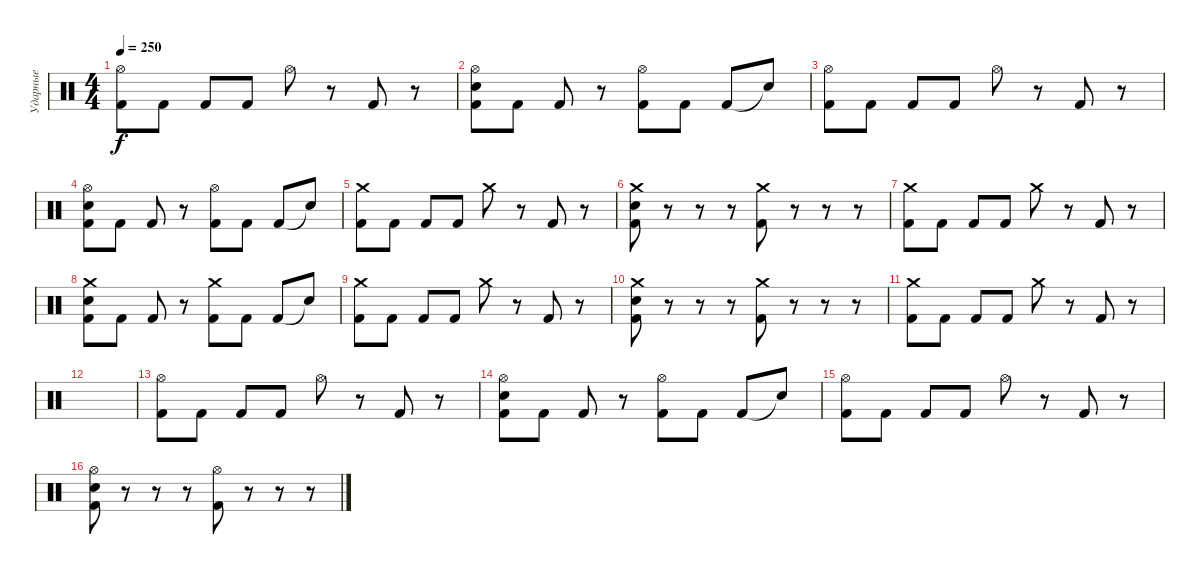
\track ("Ударные" "Ударные") {instrument percussion}
\staff {score}
\articulation defaults
\ts (4 4)
\tempo 250
\clef neutral
\ks c
("Hi-Hat (open)" "Kick (hit) 2").8{dy f} "Kick (hit) 2".8 "Kick (hit) 2".8 "Kick (hit) 2".8 "Hi-Hat (open)".8 r.8 "Kick (hit) 2".8 r.8 |
("Hi-Hat (open)" "Kick (hit) 2" "Electric Snare (hit)").8 "Kick (hit) 2".8 "Kick (hit) 2".8 r.8 ("Hi-Hat (open)" "Kick (hit) 2").8 "Kick (hit) 2".8 "Kick (hit) 2".8 "Snare (hit)"{t}.8 |
("Hi-Hat (open)" "Kick (hit) 2").8 "Kick (hit) 2".8 "Kick (hit) 2".8 "Kick (hit) 2".8 "Hi-Hat (open)".8 r.8 "Kick (hit) 2".8 r.8 |
("Hi-Hat (open)" "Kick (hit) 2" "Electric Snare (hit)").8 "Kick (hit) 2".8 "Kick (hit) 2".8 r.8 ("Hi-Hat (open)" "Kick (hit) 2").8 "Kick (hit) 2".8 "Kick (hit) 2".8 "Snare (hit)"{t}.8 |
("Crash medium (hit)" "Kick (hit) 2").8 "Kick (hit) 2".8 "Kick (hit) 2".8 "Kick (hit) 2".8 "Crash medium (hit)".8 r.8 "Kick (hit) 2".8 r.8 |
("Crash medium (hit)" "Kick (hit) 2" "Electric Snare (hit)").8 r.8 r.8 r.8 ("Crash medium (hit)" "Kick (hit) 2").8 r.8 r.8 r.8 |
("Crash medium (hit)" "Kick (hit) 2").8 "Kick (hit) 2".8 "Kick (hit) 2".8 "Kick (hit) 2".8 "Crash medium (hit)".8 r.8 "Kick (hit) 2".8 r.8 |
("Crash medium (hit)" "Kick (hit) 2" "Electric Snare (hit)").8 "Kick (hit) 2".8 "Kick (hit) 2".8 r.8 ("Crash medium (hit)" "Kick (hit) 2").8 "Kick (hit) 2".8 "Kick (hit) 2".8 "Snare (hit)"{t}.8 |
("Crash medium (hit)" "Kick (hit) 2").8 "Kick (hit) 2".8 "Kick (hit) 2".8 "Kick (hit) 2".8 "Crash medium (hit)".8 r.8 "Kick (hit) 2".8 r.8 |
("Crash medium (hit)" "Kick (hit) 2" "Electric Snare (hit)").8 r.8 r.8 r.8 ("Crash medium (hit)" "Kick (hit) 2").8 r.8 r.8 r.8 |
("Crash medium (hit)" "Kick (hit) 2").8 "Kick (hit) 2".8 "Kick (hit) 2".8 "Kick (hit) 2".8 "Crash medium (hit)".8 r.8 "Kick (hit) 2".8 r.8 |
|
("Hi-Hat (open)" "Kick (hit) 2").8 "Kick (hit) 2".8 "Kick (hit) 2".8 "Kick (hit) 2".8 "Hi-Hat (open)".8 r.8 "Kick (hit) 2".8 r.8 |
("Hi-Hat (open)" "Kick (hit) 2" "Electric Snare (hit)").8 "Kick (hit) 2".8 "Kick (hit) 2".8 r.8 ("Hi-Hat (open)" "Kick (hit) 2").8 "Kick (hit) 2".8 "Kick (hit) 2".8 "Snare (hit)"{t}.8 |
("Hi-Hat (open)" "Kick (hit) 2").8 "Kick (hit) 2".8 "Kick (hit) 2".8 "Kick (hit) 2".8 "Hi-Hat (open)".8 r.8 "Kick (hit) 2".8 r.8 |
("Hi-Hat (open)" "Kick (hit) 2" "Electric Snare (hit)").8 r.8 r.8 r.8 ("Hi-Hat (open)" "Kick (hit) 2").8 r.8 r.8 r.8
